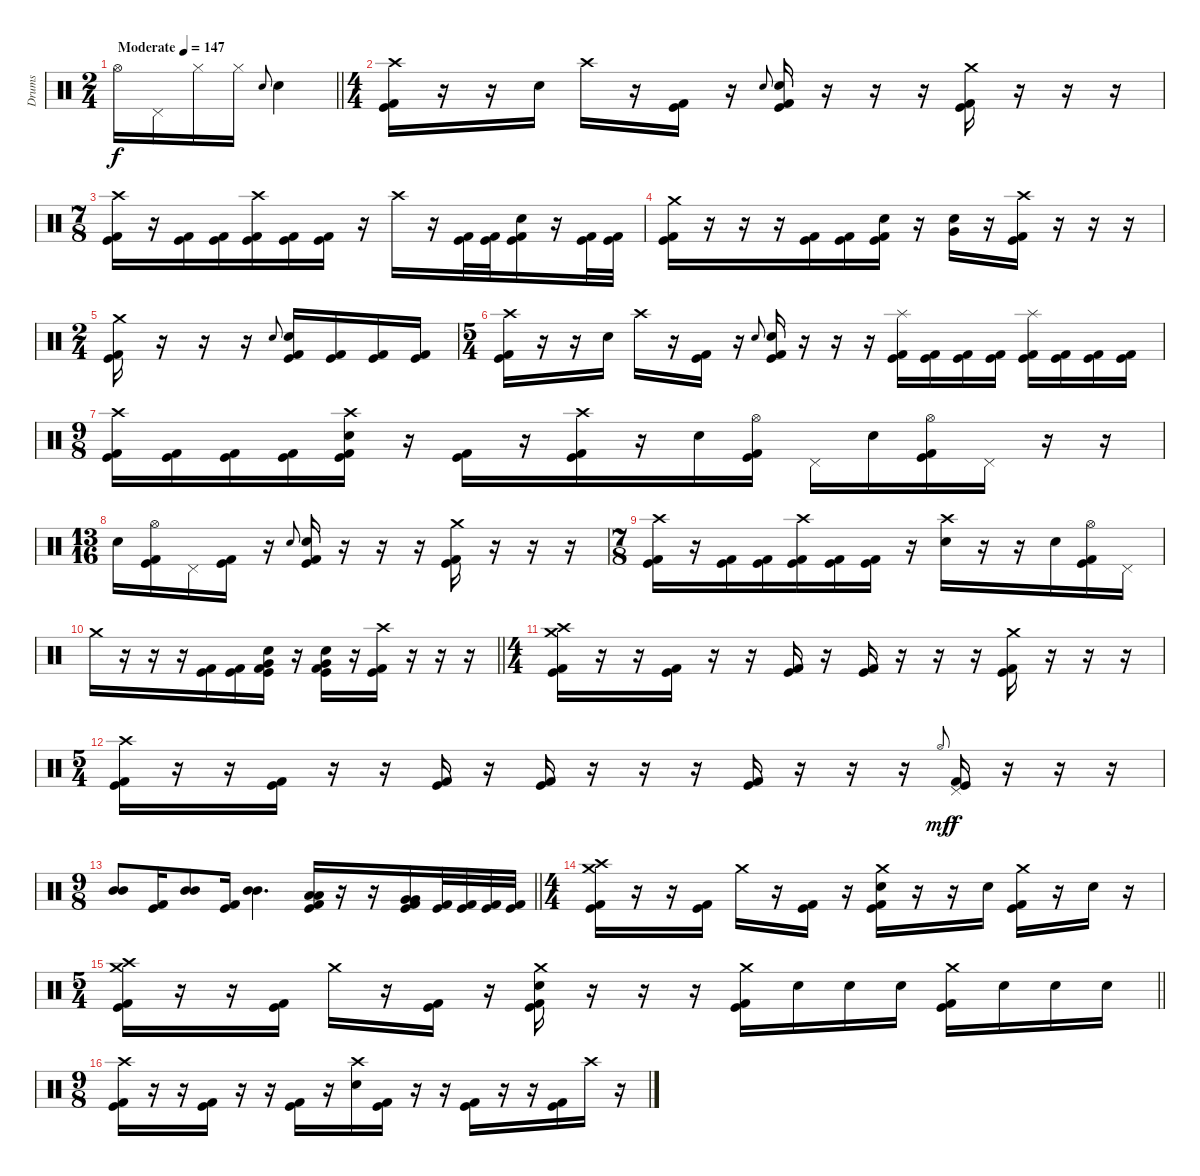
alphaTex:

\track ("Drums" "Drums") {instrument percussion}
\staff {score}
\articulation defaults
\ts (2 4)
\tempo (147 "Moderate")
\clef neutral
\barLineRight lightlight
\ks c "Hi-Hat (open)".16{dy f} "Pedal Hi-Hat (hit)".16 "Hi-Hat (closed)".16 "Hi-Hat (closed)".16 "Electric Snare (hit)".8{gr onbeat} "Electric Snare (hit)".4
|
\ts (4 4)
("Crash high (hit)" "Kick (hit)" "Kick (hit) 2").16 r.16 r.16 "Electric Snare (hit)".16 "Crash high (hit)".16 r.16 ("Kick (hit)" "Kick (hit) 2").16 r.16 "Electric Snare (hit)".8{gr onbeat} ("Electric Snare (hit)" "Kick (hit)" "Kick (hit) 2").16 r.16 r.16 r.16 ("Crash medium (hit)" "Kick (hit)" "Kick (hit) 2").16 r.16 r.16 r.16 |
\ts (7 8)
("Crash high (hit)" "Kick (hit)" "Kick (hit) 2").16 r.16 ("Kick (hit)" "Kick (hit) 2").16 ("Kick (hit)" "Kick (hit) 2").16 ("Crash high (hit)" "Kick (hit)" "Kick (hit) 2").16 ("Kick (hit)" "Kick (hit) 2").16 ("Kick (hit)" "Kick (hit) 2").16 r.16 "Crash high (hit)".16 r.16 ("Kick (hit)" "Kick (hit) 2").32 ("Kick (hit)" "Kick (hit) 2").32 ("Electric Snare (hit)" "Kick (hit)" "Kick (hit) 2").16 r.16 ("Kick (hit)" "Kick (hit) 2").32 ("Kick (hit)" "Kick (hit) 2").32 |
("Crash medium (hit)" "Kick (hit)" "Kick (hit) 2").16 r.16 r.16 r.16 ("Kick (hit)" "Kick (hit) 2").16 ("Kick (hit)" "Kick (hit) 2").16 ("Electric Snare (hit)" "Kick (hit)" "Kick (hit) 2").16 r.16 ("Electric Snare (hit)" "Very Low Tom (hit)").16 r.16 ("Crash high (hit)" "Kick (hit)" "Kick (hit) 2").16 r.16 r.16 r.16 |
\ts (2 4)
("Crash medium (hit)" "Kick (hit)" "Kick (hit) 2").16 r.16 r.16 r.16 "Electric Snare (hit)".8{gr onbeat} ("Electric Snare (hit)" "Kick (hit)" "Kick (hit) 2").16 ("Kick (hit)" "Kick (hit) 2").16 ("Kick (hit)" "Kick (hit) 2").16 ("Kick (hit)" "Kick (hit) 2").16 |
\ts (5 4)
("Crash high (hit)" "Kick (hit)" "Kick (hit) 2").16 r.16 r.16 "Electric Snare (hit)".16 "Crash high (hit)".16 r.16 ("Kick (hit)" "Kick (hit) 2").16 r.16 "Electric Snare (hit)".8{gr onbeat} ("Electric Snare (hit)" "Kick (hit)" "Kick (hit) 2").16 r.16 r.16 r.16 ("Splash (hit)" "Kick (hit)" "Kick (hit) 2").16 ("Kick (hit)" "Kick (hit) 2").16 ("Kick (hit)" "Kick (hit) 2").16 ("Kick (hit)" "Kick (hit) 2").16 ("Splash (hit)" "Kick (hit)" "Kick (hit) 2").16 ("Kick (hit)" "Kick (hit) 2").16 ("Kick (hit)" "Kick (hit) 2").16 ("Kick (hit)" "Kick (hit) 2").16 |
\ts (9 8)
("Crash high (hit)" "Kick (hit)" "Kick (hit) 2").16 ("Kick (hit)" "Kick (hit) 2").16 ("Kick (hit)" "Kick (hit) 2").16 ("Kick (hit)" "Kick (hit) 2").16 ("Crash high (hit)" "Electric Snare (hit)" "Kick (hit)" "Kick (hit) 2").16 r.16 ("Kick (hit)" "Kick (hit) 2").16 r.16 ("Crash high (hit)" "Kick (hit)" "Kick (hit) 2").16 r.16 "Electric Snare (hit)".16 ("Hi-Hat (open)" "Kick (hit)" "Kick (hit) 2").16 "Pedal Hi-Hat (hit)".16 "Electric Snare (hit)".16 ("Hi-Hat (open)" "Kick (hit)" "Kick (hit) 2").16 "Pedal Hi-Hat (hit)".16 r.16 r.16 |
\ts (13 16)
"Electric Snare (hit)".16 ("Hi-Hat (open)" "Kick (hit)" "Kick (hit) 2").16 "Pedal Hi-Hat (hit)".16 ("Kick (hit)" "Kick (hit) 2").16 r.16 "Electric Snare (hit)".8{gr onbeat} ("Electric Snare (hit)" "Kick (hit)" "Kick (hit) 2").16 r.16 r.16 r.16 ("Crash medium (hit)" "Kick (hit)" "Kick (hit) 2").16 r.16 r.16 r.16 |
\ts (7 8)
("Crash high (hit)" "Kick (hit)" "Kick (hit) 2").16 r.16 ("Kick (hit)" "Kick (hit) 2").16 ("Kick (hit)" "Kick (hit) 2").16 ("Crash high (hit)" "Kick (hit)" "Kick (hit) 2").16 ("Kick (hit)" "Kick (hit) 2").16 ("Kick (hit)" "Kick (hit) 2").16 r.16 ("Crash high (hit)" "Electric Snare (hit)").16 r.16 r.16 "Electric Snare (hit)".16 ("Hi-Hat (open)" "Kick (hit)" "Kick (hit) 2").16 "Pedal Hi-Hat (hit)".16 |
\barLineRight lightlight "Crash medium (hit)".16
r.16 r.16 r.16 ("Kick (hit)" "Kick (hit) 2").16 ("Kick (hit)" "Kick (hit) 2").16 ("Electric Snare (hit)" "Very Low Tom (hit)" "Kick (hit)" "Kick (hit) 2").16 r.16 ("Electric Snare (hit)" "Very Low Tom (hit)" "Kick (hit)" "Kick (hit) 2").16 r.16 ("Crash high (hit)" "Kick (hit)" "Kick (hit) 2").16 r.16 r.16 r.16 |
\ts (4 4)
("Crash high (hit)" "Crash medium (hit)" "Kick (hit)" "Kick (hit) 2").16 r.16 r.16 ("Kick (hit)" "Kick (hit) 2").16 r.16 r.16 ("Kick (hit)" "Kick (hit) 2").16 r.16 ("Kick (hit)" "Kick (hit) 2").16 r.16 r.16 r.16 ("Crash medium (hit)" "Kick (hit)" "Kick (hit) 2").16 r.16 r.16 r.16 |
\ts (5 4)
("Crash high (hit)" "Kick (hit)" "Kick (hit) 2").16 r.16 r.16 ("Kick (hit)" "Kick (hit) 2").16 r.16 r.16 ("Kick (hit)" "Kick (hit) 2").16 r.16 ("Kick (hit)" "Kick (hit) 2").16 r.16 r.16 r.16 ("Kick (hit)" "Kick (hit) 2").16 r.16 r.16 r.16 "Hi-Hat (open)".8{gr onbeat dy mf} ("Pedal Hi-Hat (hit)" "Kick (hit)" "Kick (hit) 2").16{dy f} r.16 r.16 r.16 |
\ts (9 8)
\barLineRight lightlight
("Mid Tom (hit)" "Mid Tom (hit)").8 ("Kick (hit)" "Kick (hit) 2").16 ("Mid Tom (hit)" "Mid Tom (hit)").8 ("Kick (hit)" "Kick (hit) 2").16 ("Mid Tom (hit)" "Mid Tom (hit)").4{d} ("Low Tom (hit)" "Low Tom (hit)" "Kick (hit)" "Kick (hit) 2").16 r.16 r.16 ("Very Low Tom (hit)" "Very Low Tom (hit)" "Kick (hit)" "Kick (hit) 2").16 ("Kick (hit)" "Kick (hit) 2").32 ("Kick (hit)" "Kick (hit) 2").32 ("Kick (hit)" "Kick (hit) 2").32 ("Kick (hit)" "Kick (hit) 2").32 |
\ts (4 4)
("Crash high (hit)" "Crash medium (hit)" "Kick (hit)" "Kick (hit) 2").16 r.16 r.16 ("Kick (hit)" "Kick (hit) 2").16 "Crash medium (hit)".16 r.16 ("Kick (hit)" "Kick (hit) 2").16 r.16 ("Crash medium (hit)" "Electric Snare (hit)" "Kick (hit)" "Kick (hit) 2").16 r.16 r.16 "Electric Snare (hit)".16 ("Crash medium (hit)" "Kick (hit)" "Kick (hit) 2").16 r.16 "Electric Snare (hit)".16 r.16 |
\ts (5 4)
\barLineRight lightlight
("Crash high (hit)" "Crash medium (hit)" "Kick (hit)" "Kick (hit) 2").16 r.16 r.16 ("Kick (hit)" "Kick (hit) 2").16 "Crash medium (hit)".16 r.16 ("Kick (hit)" "Kick (hit) 2").16 r.16 ("Crash medium (hit)" "Electric Snare (hit)" "Kick (hit)" "Kick (hit) 2").16 r.16 r.16 r.16 ("Crash medium (hit)" "Kick (hit)" "Kick (hit) 2").16 "Electric Snare (hit)".16 "Electric Snare (hit)".16 "Electric Snare (hit)".16 ("Crash medium (hit)" "Kick (hit)" "Kick (hit) 2").16 "Electric Snare (hit)".16 "Electric Snare (hit)".16 "Electric Snare (hit)".16 |
\ts (9 8)
("Crash high (hit)" "Kick (hit)" "Kick (hit) 2").16 r.16 r.16 ("Kick (hit)" "Kick (hit) 2").16 r.16 r.16 ("Kick (hit)" "Kick (hit) 2").16 r.16 ("Crash high (hit)" "Electric Snare (hit)").16 ("Kick (hit)" "Kick (hit) 2").16 r.16 r.16 ("Kick (hit)" "Kick (hit) 2").16 r.16 r.16 ("Kick (hit)" "Kick (hit) 2").16 "Crash high (hit)".16 r.16
